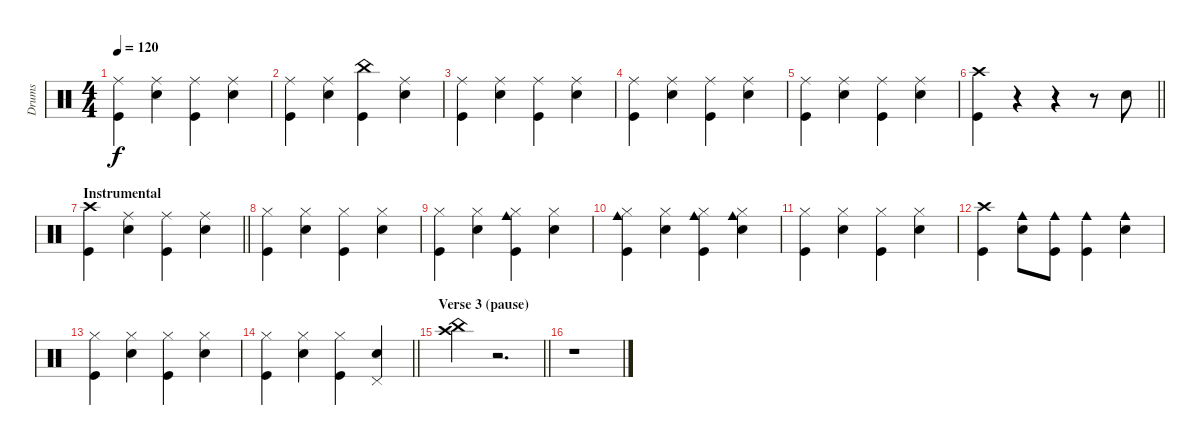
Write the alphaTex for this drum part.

\track ("Drums" "Drums") {instrument percussion}
\staff {score}
\articulation defaults
\ts (4 4)
\tempo 120
\clef neutral
\ks c
("Ride (middle)" "Kick (hit)").4{dy f} ("Ride (middle)" "Electric Snare (hit)").4 ("Ride (middle)" "Kick (hit)").4 ("Ride (middle)" "Electric Snare (hit)").4 |
("Ride (middle)" "Kick (hit)").4 ("Ride (middle)" "Electric Snare (hit)").4 ("China (hit)" "Kick (hit)").4 ("Ride (middle)" "Electric Snare (hit)").4 |
("Ride (middle)" "Kick (hit)").4 ("Ride (middle)" "Electric Snare (hit)").4 ("Ride (middle)" "Kick (hit)").4 ("Ride (middle)" "Electric Snare (hit)").4 |
("Ride (middle)" "Kick (hit)").4 ("Ride (middle)" "Electric Snare (hit)").4 ("Ride (middle)" "Kick (hit)").4 ("Ride (middle)" "Electric Snare (hit)").4 |
("Ride (middle)" "Kick (hit)").4 ("Ride (middle)" "Electric Snare (hit)").4 ("Ride (middle)" "Kick (hit)").4 ("Ride (middle)" "Electric Snare (hit)").4 |
\barLineRight lightlight
("Crash high (hit)" "Kick (hit)").4 r.4 r.4 r.8 "Electric Snare (hit)".8 |
\section ("" "Instrumental")
\barLineRight lightlight
("Crash high (hit)" "Kick (hit)").4 ("Ride (middle)" "Electric Snare (hit)").4 ("Ride (middle)" "Kick (hit)").4 ("Ride (middle)" "Electric Snare (hit)").4 |
("Hi-Hat (closed)" "Kick (hit)").4 ("Hi-Hat (closed)" "Electric Snare (hit)").4 ("Hi-Hat (closed)" "Kick (hit)").4 ("Hi-Hat (closed)" "Electric Snare (hit)").4 |
("Hi-Hat (closed)" "Kick (hit)").4 ("Hi-Hat (closed)" "Electric Snare (hit)").4 ("Cowbell medium (hit)" "Hi-Hat (closed)" "Kick (hit)").4 ("Hi-Hat (closed)" "Electric Snare (hit)").4 |
("Cowbell medium (hit)" "Hi-Hat (closed)" "Kick (hit)").4 ("Hi-Hat (closed)" "Electric Snare (hit)").4 ("Cowbell medium (hit)" "Hi-Hat (closed)" "Kick (hit)").4 ("Cowbell medium (hit)" "Hi-Hat (closed)" "Electric Snare (hit)").4 |
("Hi-Hat (closed)" "Kick (hit)").4 ("Hi-Hat (closed)" "Electric Snare (hit)").4 ("Hi-Hat (closed)" "Kick (hit)").4 ("Hi-Hat (closed)" "Electric Snare (hit)").4 |
("Crash high (hit)" "Kick (hit)").4 ("Cowbell medium (hit)" "Electric Snare (hit)").8 ("Cowbell medium (hit)" "Kick (hit)").8 ("Cowbell medium (hit)" "Kick (hit)").4 ("Cowbell medium (hit)" "Electric Snare (hit)").4 |
("Hi-Hat (closed)" "Kick (hit)").4 ("Hi-Hat (closed)" "Electric Snare (hit)").4 ("Hi-Hat (closed)" "Kick (hit)").4 ("Hi-Hat (closed)" "Electric Snare (hit)").4 |
\barLineRight lightlight
("Hi-Hat (closed)" "Kick (hit)").4 ("Hi-Hat (closed)" "Electric Snare (hit)").4 ("Hi-Hat (closed)" "Kick (hit)").4 ("Pedal Hi-Hat (hit)" "Electric Snare (hit)").4 |
\section ("" "Verse 3 (pause)")
\barLineRight lightlight
("Crash high (hit)" "China (hit)").4 r.2{d} |
r.1
